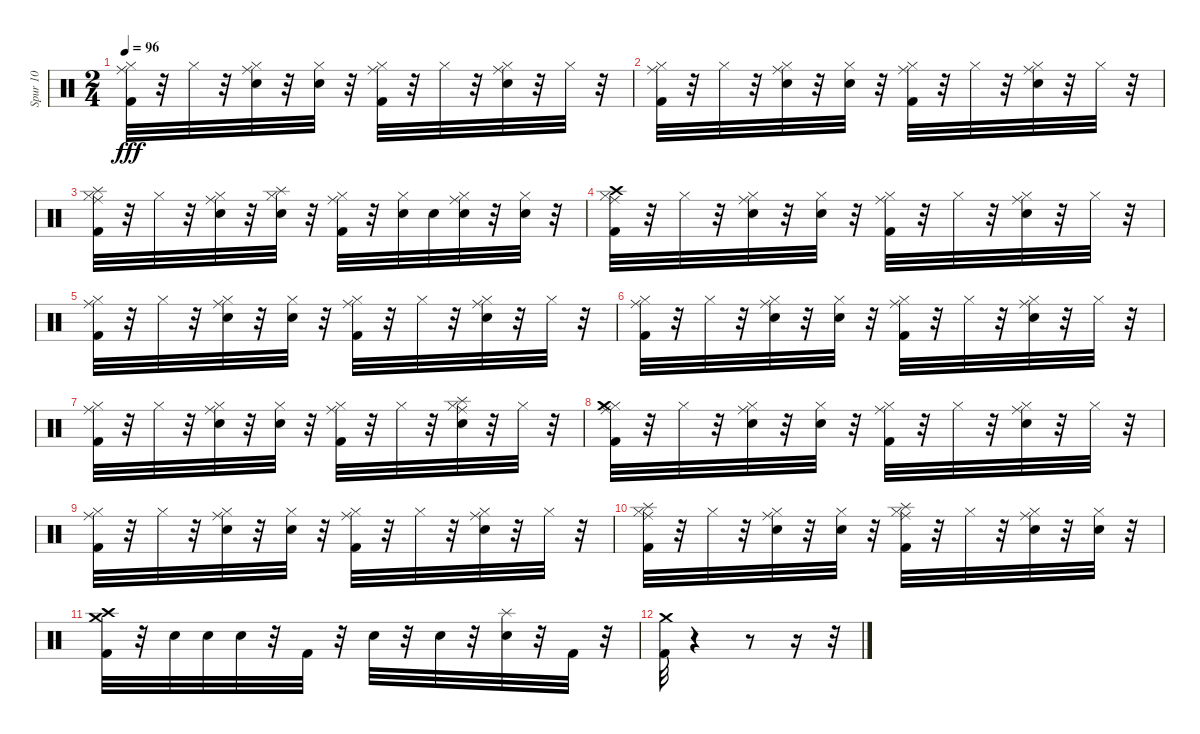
\track ("Spur 10" "Spur 10") {instrument percussion}
\staff {score}
\articulation defaults
\ts (2 4)
\tempo 96
\clef neutral
\ks c
("Hi-Hat (closed)" "Kick (hit) 2" "Ride (middle)").32{dy fff} r.32 "Hi-Hat (closed)".32 r.32 ("Hi-Hat (closed)" "Ride (middle)" "Electric Snare (hit)").32 r.32 ("Hi-Hat (closed)" "Electric Snare (hit)").32 r.32 ("Hi-Hat (closed)" "Kick (hit) 2" "Ride (middle)").32 r.32 "Hi-Hat (closed)".32 r.32 ("Hi-Hat (closed)" "Ride (middle)" "Electric Snare (hit)").32 r.32 "Hi-Hat (closed)".32 r.32 |
("Hi-Hat (closed)" "Ride (middle)" "Kick (hit) 2").32 r.32 "Hi-Hat (closed)".32 r.32 ("Hi-Hat (closed)" "Ride (middle)" "Electric Snare (hit)").32 r.32 ("Hi-Hat (closed)" "Electric Snare (hit)").32 r.32 ("Hi-Hat (closed)" "Ride (middle)" "Kick (hit) 2").32 r.32 "Hi-Hat (closed)".32 r.32 ("Hi-Hat (closed)" "Ride (middle)" "Electric Snare (hit)").32 r.32 "Hi-Hat (closed)".32 r.32 |
("Hi-Hat (closed)" "Splash (hit)" "Ride (middle)" "Kick (hit) 2").32 r.32 "Hi-Hat (closed)".32 r.32 ("Hi-Hat (closed)" "Ride (middle)" "Electric Snare (hit)").32 r.32 ("Splash (hit)" "Hi-Hat (closed)" "Electric Snare (hit)").32 r.32 ("Hi-Hat (closed)" "Ride (middle)" "Kick (hit) 2").32 r.32 ("Hi-Hat (closed)" "Electric Snare (hit)").32 "Electric Snare (hit)".32 ("Hi-Hat (closed)" "Ride (middle)" "Electric Snare (hit)").32 r.32 ("Hi-Hat (closed)" "Electric Snare (hit)").32 r.32 |
("Hi-Hat (closed)" "Crash high (hit)" "Kick (hit) 2" "Ride (middle)").32 r.32 "Hi-Hat (closed)".32 r.32 ("Hi-Hat (closed)" "Ride (middle)" "Electric Snare (hit)").32 r.32 ("Hi-Hat (closed)" "Electric Snare (hit)").32 r.32 ("Hi-Hat (closed)" "Kick (hit) 2" "Ride (middle)").32 r.32 "Hi-Hat (closed)".32 r.32 ("Hi-Hat (closed)" "Ride (middle)" "Electric Snare (hit)").32 r.32 "Hi-Hat (closed)".32 r.32 |
("Hi-Hat (closed)" "Kick (hit) 2" "Ride (middle)").32 r.32 "Hi-Hat (closed)".32 r.32 ("Hi-Hat (closed)" "Ride (middle)" "Electric Snare (hit)").32 r.32 ("Hi-Hat (closed)" "Electric Snare (hit)").32 r.32 ("Hi-Hat (closed)" "Kick (hit) 2" "Ride (middle)").32 r.32 "Hi-Hat (closed)".32 r.32 ("Hi-Hat (closed)" "Ride (middle)" "Electric Snare (hit)").32 r.32 "Hi-Hat (closed)".32 r.32 |
("Hi-Hat (closed)" "Ride (middle)" "Kick (hit) 2").32 r.32 "Hi-Hat (closed)".32 r.32 ("Hi-Hat (closed)" "Ride (middle)" "Electric Snare (hit)").32 r.32 ("Hi-Hat (closed)" "Electric Snare (hit)").32 r.32 ("Hi-Hat (closed)" "Ride (middle)" "Kick (hit) 2").32 r.32 "Hi-Hat (closed)".32 r.32 ("Hi-Hat (closed)" "Ride (middle)" "Electric Snare (hit)").32 r.32 "Hi-Hat (closed)".32 r.32 |
("Hi-Hat (closed)" "Ride (middle)" "Kick (hit) 2").32 r.32 "Hi-Hat (closed)".32 r.32 ("Hi-Hat (closed)" "Ride (middle)" "Electric Snare (hit)").32 r.32 ("Hi-Hat (closed)" "Electric Snare (hit)").32 r.32 ("Hi-Hat (closed)" "Ride (middle)" "Kick (hit) 2").32 r.32 "Hi-Hat (closed)".32 r.32 ("Hi-Hat (closed)" "Splash (hit)" "Ride (middle)" "Electric Snare (hit)").32 r.32 "Hi-Hat (closed)".32 r.32 |
("Hi-Hat (closed)" "Crash medium (hit)" "Kick (hit) 2" "Ride (middle)").32 r.32 "Hi-Hat (closed)".32 r.32 ("Hi-Hat (closed)" "Ride (middle)" "Electric Snare (hit)").32 r.32 ("Hi-Hat (closed)" "Electric Snare (hit)").32 r.32 ("Hi-Hat (closed)" "Kick (hit) 2" "Ride (middle)").32 r.32 "Hi-Hat (closed)".32 r.32 ("Hi-Hat (closed)" "Ride (middle)" "Electric Snare (hit)").32 r.32 "Hi-Hat (closed)".32 r.32 |
("Hi-Hat (closed)" "Kick (hit) 2" "Ride (middle)").32 r.32 "Hi-Hat (closed)".32 r.32 ("Hi-Hat (closed)" "Ride (middle)" "Electric Snare (hit)").32 r.32 ("Hi-Hat (closed)" "Electric Snare (hit)").32 r.32 ("Hi-Hat (closed)" "Kick (hit) 2" "Ride (middle)").32 r.32 "Hi-Hat (closed)".32 r.32 ("Hi-Hat (closed)" "Ride (middle)" "Electric Snare (hit)").32 r.32 "Hi-Hat (closed)".32 r.32 |
("Hi-Hat (closed)" "Splash (hit)" "Ride (middle)" "Kick (hit) 2").32 r.32 "Hi-Hat (closed)".32 r.32 ("Hi-Hat (closed)" "Ride (middle)" "Electric Snare (hit)").32 r.32 ("Hi-Hat (closed)" "Electric Snare (hit)").32 r.32 ("Hi-Hat (closed)" "Ride (middle)" "Kick (hit) 2" "Splash (hit)").32 r.32 "Hi-Hat (closed)".32 r.32 ("Hi-Hat (closed)" "Ride (middle)" "Electric Snare (hit)").32 r.32 ("Hi-Hat (closed)" "Electric Snare (hit)").32 r.32 |
("Crash medium (hit)" "Crash high (hit)" "Kick (hit) 2").32 r.32 "Electric Snare (hit)".32 "Electric Snare (hit)".32 "Electric Snare (hit)".32 r.32 "Kick (hit) 2".32 r.32 "Electric Snare (hit)".32 r.32 "Electric Snare (hit)".32 r.32 ("Splash (hit)" "Electric Snare (hit)").32 r.32 "Kick (hit) 2".32 r.32 |
("Crash medium (hit)" "Kick (hit) 2").32 r.4 r.8 r.16 r.32
